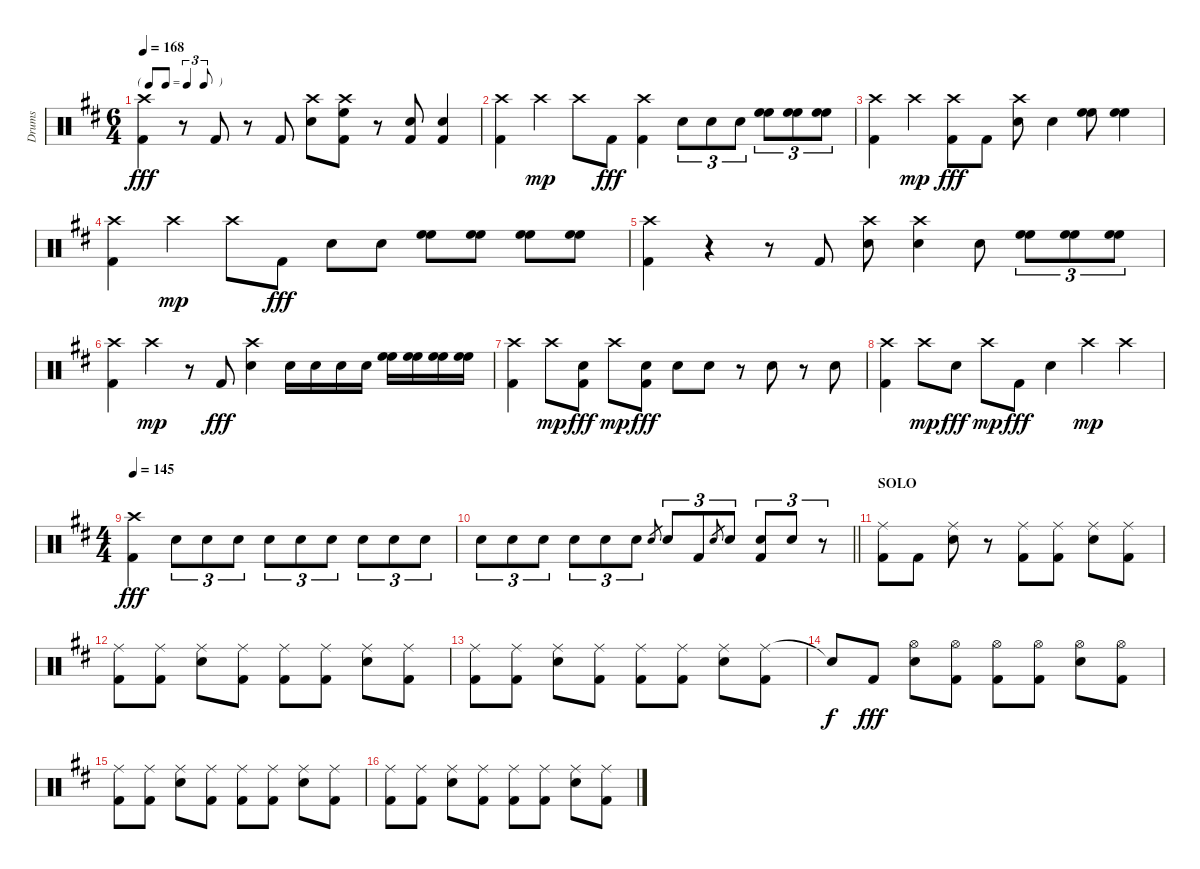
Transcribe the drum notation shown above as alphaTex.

\track ("Drums" "Drums") {instrument percussion}
\staff {score}
\articulation defaults
\ts (6 4)
\tf triplet8th
\tempo 168
\clef neutral
\ks d
("Crash high (hit)" "Kick (hit) 2").4{dy fff} r.8 "Kick (hit) 2".8 r.8 "Kick (hit) 2".8 ("Crash high (hit)" "Snare (hit) 2").8 ("Crash high (hit)" "High Floor Tom (hit)" "Kick (hit) 2").8 r.8 ("Snare (hit) 2" "Kick (hit) 2").8 ("Snare (hit) 2" "Kick (hit) 2").4 |
("Crash high (hit)" "Kick (hit) 2").4 "Crash high (hit)".4{dy mp} "Crash high (hit)".8 "Kick (hit) 2".8{dy fff} ("Crash high (hit)" "Kick (hit) 2").4 "Snare (hit) 2".8{tu (3 2)} "Snare (hit) 2".8{tu (3 2)} "Snare (hit) 2".8{tu (3 2)} ("High Floor Tom (hit)" "High Floor Tom (hit)").8{tu (3 2)} ("High Floor Tom (hit)" "High Floor Tom (hit)").8{tu (3 2)} ("High Floor Tom (hit)" "High Floor Tom (hit)").8{tu (3 2)} |
("Crash high (hit)" "Kick (hit) 2").4 "Crash high (hit)".4{dy mp} ("Crash high (hit)" "Kick (hit) 2").8{dy fff} "Kick (hit) 2".8 ("Crash high (hit)" "Snare (hit) 2").8 "Snare (hit) 2".4 ("High Floor Tom (hit)" "High Floor Tom (hit)").8 ("High Floor Tom (hit)" "High Floor Tom (hit)").4 |
("Crash high (hit)" "Kick (hit) 2").4 "Crash high (hit)".4{dy mp} "Crash high (hit)".8 "Kick (hit) 2".8{dy fff} "Snare (hit) 2".8 "Snare (hit) 2".8 ("High Floor Tom (hit)" "High Floor Tom (hit)").8 ("High Floor Tom (hit)" "High Floor Tom (hit)").8 ("High Floor Tom (hit)" "High Floor Tom (hit)").8 ("High Floor Tom (hit)" "High Floor Tom (hit)").8 |
("Crash high (hit)" "Kick (hit) 2").4 r.4 r.8 "Kick (hit) 2".8 ("Crash high (hit)" "Snare (hit) 2").8 ("Crash high (hit)" "Snare (hit) 2").4 "Snare (hit) 2".8 ("High Floor Tom (hit)" "High Floor Tom (hit)").8{tu (3 2)} ("High Floor Tom (hit)" "High Floor Tom (hit)").8{tu (3 2)} ("High Floor Tom (hit)" "High Floor Tom (hit)").8{tu (3 2)} |
("Crash high (hit)" "Kick (hit) 2").4 "Crash high (hit)".4{dy mp} r.8 "Kick (hit) 2".8{dy fff} ("Crash high (hit)" "Snare (hit) 2").4 "Snare (hit) 2".16 "Snare (hit) 2".16 "Snare (hit) 2".16 "Snare (hit) 2".16 ("High Floor Tom (hit)" "High Floor Tom (hit)").16 ("High Floor Tom (hit)" "High Floor Tom (hit)").16 ("High Floor Tom (hit)" "High Floor Tom (hit)").16 ("High Floor Tom (hit)" "High Floor Tom (hit)").16 |
("Crash high (hit)" "Kick (hit) 2").4 "Crash high (hit)".8{dy mp} ("Snare (hit) 2" "Kick (hit) 2").8{dy fff} "Crash high (hit)".8{dy mp} ("Snare (hit) 2" "Kick (hit) 2").8{dy fff} "Snare (hit) 2".8 "Snare (hit) 2".8 r.8 "Snare (hit) 2".8 r.8 "Snare (hit) 2".8 |
("Crash high (hit)" "Kick (hit) 2").4 "Crash high (hit)".8{dy mp} "Snare (hit) 2".8{dy fff} "Crash high (hit)".8{dy mp} "Kick (hit) 2".8{dy fff} "Snare (hit) 2".4 "Crash high (hit)".4{dy mp} "Crash high (hit)".4 |
\ts (4 4)
\tempo 145
("Crash high (hit)" "Kick (hit) 2").4{dy fff} "Snare (hit) 2".8{tu (3 2)} "Snare (hit) 2".8{tu (3 2)} "Snare (hit) 2".8{tu (3 2)} "Snare (hit) 2".8{tu (3 2)} "Snare (hit) 2".8{tu (3 2)} "Snare (hit) 2".8{tu (3 2)} "Snare (hit) 2".8{tu (3 2)} "Snare (hit) 2".8{tu (3 2)} "Snare (hit) 2".8{tu (3 2)} |
\barLineRight lightlight "Snare (hit) 2".8{tu (3 2)} "Snare (hit) 2".8{tu (3 2)} "Snare (hit) 2".8{tu (3 2)} "Snare (hit) 2".8{tu (3 2)} "Snare (hit) 2".8{tu (3 2)} "Snare (hit) 2".8{tu (3 2)} "Snare (hit) 2".8{gr} "Snare (hit) 2".8{tu (3 2)} "Kick (hit) 2".8{tu (3 2)} "Snare (hit) 2".8{gr} "Snare (hit) 2".8{tu (3 2)}
("Snare (hit) 2" "Kick (hit) 2").8{tu (3 2)} "Snare (hit) 2".8{tu (3 2)} r.8{tu (3 2)} |
\section ("" "SOLO")
("Ride (middle)" "Kick (hit) 2").8 "Kick (hit) 2".8 ("Ride (middle)" "Snare (hit) 2").8 r.8 ("Ride (middle)" "Kick (hit) 2").8 ("Ride (middle)" "Kick (hit) 2").8 ("Ride (middle)" "Snare (hit) 2").8 ("Ride (middle)" "Kick (hit) 2").8 |
("Ride (middle)" "Kick (hit) 2").8 ("Ride (middle)" "Kick (hit) 2").8 ("Ride (middle)" "Snare (hit) 2").8 ("Ride (middle)" "Kick (hit) 2").8 ("Ride (middle)" "Kick (hit) 2").8 ("Ride (middle)" "Kick (hit) 2").8 ("Ride (middle)" "Snare (hit) 2").8 ("Ride (middle)" "Kick (hit) 2").8 |
("Ride (middle)" "Kick (hit) 2").8 ("Ride (middle)" "Kick (hit) 2").8 ("Ride (middle)" "Snare (hit) 2").8 ("Ride (middle)" "Kick (hit) 2").8 ("Ride (middle)" "Kick (hit) 2").8 ("Ride (middle)" "Kick (hit) 2").8 ("Ride (middle)" "Snare (hit) 2").8 ("Ride (middle)" "Kick (hit) 2").8 |
"Snare (hit)"{t}.8{dy f} "Kick (hit) 2".8{dy fff} ("Hi-Hat (open)" "Snare (hit) 2").8 ("Hi-Hat (open)" "Kick (hit) 2").8 ("Hi-Hat (open)" "Kick (hit) 2").8 ("Hi-Hat (open)" "Kick (hit) 2").8 ("Hi-Hat (open)" "Snare (hit) 2").8 ("Hi-Hat (open)" "Kick (hit) 2").8 |
("Ride (middle)" "Kick (hit) 2").8 ("Ride (middle)" "Kick (hit) 2").8 ("Ride (middle)" "Snare (hit) 2").8 ("Ride (middle)" "Kick (hit) 2").8 ("Ride (middle)" "Kick (hit) 2").8 ("Ride (middle)" "Kick (hit) 2").8 ("Ride (middle)" "Snare (hit) 2").8 ("Ride (middle)" "Kick (hit) 2").8 |
("Ride (middle)" "Kick (hit) 2").8 ("Ride (middle)" "Kick (hit) 2").8 ("Ride (middle)" "Snare (hit) 2").8 ("Ride (middle)" "Kick (hit) 2").8 ("Ride (middle)" "Kick (hit) 2").8 ("Ride (middle)" "Kick (hit) 2").8 ("Ride (middle)" "Snare (hit) 2").8 ("Ride (middle)" "Kick (hit) 2").8
